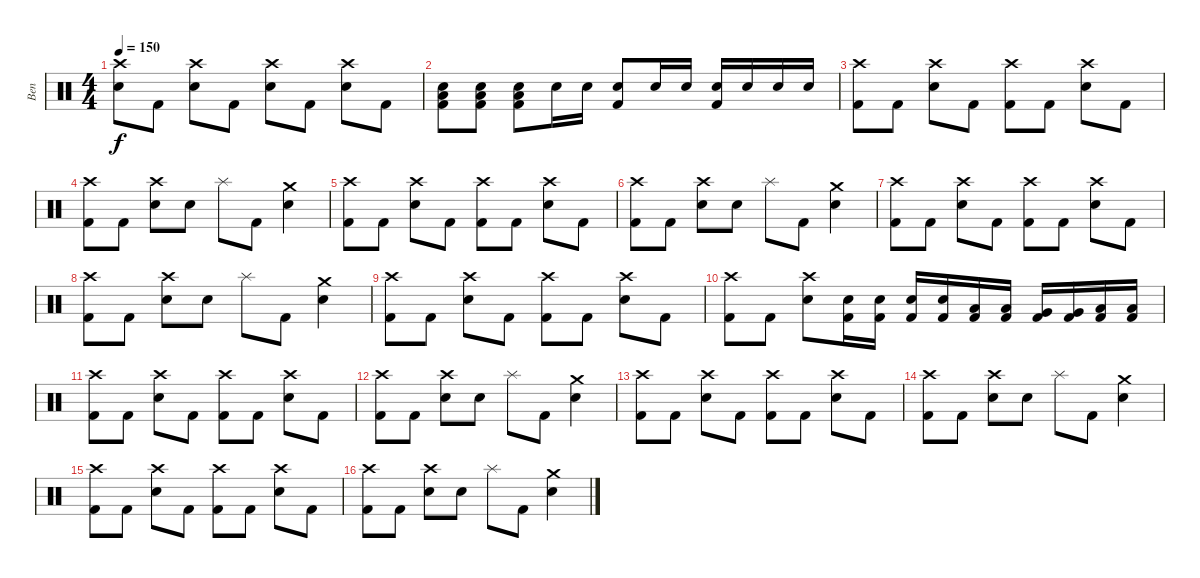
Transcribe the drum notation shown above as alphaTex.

\track ("Ben" "Ben") {instrument percussion}
\staff {score}
\articulation defaults
\ts (4 4)
\tempo 150
\clef neutral
\ks c
("Crash high (hit)" "Snare (hit) 2").8{dy f} "Kick (hit) 2".8 ("Crash high (hit)" "Snare (hit) 2").8 "Kick (hit) 2".8 ("Crash high (hit)" "Snare (hit) 2").8 "Kick (hit) 2".8 ("Crash high (hit)" "Snare (hit) 2").8 "Kick (hit) 2".8 |
("Kick (hit) 2" "Low Floor Tom (hit)" "Snare (hit) 2").8 ("Kick (hit) 2" "Low Floor Tom (hit)" "Snare (hit) 2").8 ("Kick (hit) 2" "Low Floor Tom (hit)" "Snare (hit) 2").8 "Snare (hit) 2".16 "Snare (hit) 2".16 ("Kick (hit) 2" "Snare (hit) 2").8 "Snare (hit) 2".16 "Snare (hit) 2".16 ("Kick (hit) 2" "Snare (hit) 2").16 "Snare (hit) 2".16 "Snare (hit) 2".16 "Snare (hit) 2".16 |
("Crash high (hit)" "Kick (hit) 2").8 "Kick (hit) 2".8 ("Crash high (hit)" "Snare (hit) 2").8 "Kick (hit) 2".8 ("Crash high (hit)" "Kick (hit) 2").8 "Kick (hit) 2".8 ("Crash high (hit)" "Snare (hit) 2").8 "Kick (hit) 2".8 |
("Crash high (hit)" "Kick (hit) 2").8 "Kick (hit) 2".8 ("Crash high (hit)" "Snare (hit) 2").8 "Snare (hit) 2".8 "Splash (hit)".8 "Kick (hit) 2".8 ("Crash medium (hit)" "Snare (hit) 2").4 |
("Crash high (hit)" "Kick (hit) 2").8 "Kick (hit) 2".8 ("Crash high (hit)" "Snare (hit) 2").8 "Kick (hit) 2".8 ("Crash high (hit)" "Kick (hit) 2").8 "Kick (hit) 2".8 ("Crash high (hit)" "Snare (hit) 2").8 "Kick (hit) 2".8 |
("Crash high (hit)" "Kick (hit) 2").8 "Kick (hit) 2".8 ("Crash high (hit)" "Snare (hit) 2").8 "Snare (hit) 2".8 "Splash (hit)".8 "Kick (hit) 2".8 ("Crash medium (hit)" "Snare (hit) 2").4 |
("Crash high (hit)" "Kick (hit) 2").8 "Kick (hit) 2".8 ("Crash high (hit)" "Snare (hit) 2").8 "Kick (hit) 2".8 ("Crash high (hit)" "Kick (hit) 2").8 "Kick (hit) 2".8 ("Crash high (hit)" "Snare (hit) 2").8 "Kick (hit) 2".8 |
("Crash high (hit)" "Kick (hit) 2").8 "Kick (hit) 2".8 ("Crash high (hit)" "Snare (hit) 2").8 "Snare (hit) 2".8 "Splash (hit)".8 "Kick (hit) 2".8 ("Crash medium (hit)" "Snare (hit) 2").4 |
("Crash high (hit)" "Kick (hit) 2").8 "Kick (hit) 2".8 ("Crash high (hit)" "Snare (hit) 2").8 "Kick (hit) 2".8 ("Crash high (hit)" "Kick (hit) 2").8 "Kick (hit) 2".8 ("Crash high (hit)" "Snare (hit) 2").8 "Kick (hit) 2".8 |
("Crash high (hit)" "Kick (hit) 2").8 "Kick (hit) 2".8 ("Crash high (hit)" "Snare (hit) 2").8 ("Kick (hit) 2" "Snare (hit) 2").16 ("Kick (hit) 2" "Snare (hit) 2").16 ("Kick (hit) 2" "Snare (hit) 2").16 ("Kick (hit) 2" "Snare (hit) 2").16 ("Kick (hit) 2" "Low Tom (hit)").16 ("Kick (hit) 2" "Low Tom (hit)").16 ("Kick (hit) 2" "Very Low Tom (hit)").16 ("Kick (hit) 2" "Very Low Tom (hit)").16 ("Kick (hit) 2" "Low Floor Tom (hit)").16 ("Kick (hit) 2" "Low Floor Tom (hit)").16 |
("Crash high (hit)" "Kick (hit) 2").8 "Kick (hit) 2".8 ("Crash high (hit)" "Snare (hit) 2").8 "Kick (hit) 2".8 ("Crash high (hit)" "Kick (hit) 2").8 "Kick (hit) 2".8 ("Crash high (hit)" "Snare (hit) 2").8 "Kick (hit) 2".8 |
("Crash high (hit)" "Kick (hit) 2").8 "Kick (hit) 2".8 ("Crash high (hit)" "Snare (hit) 2").8 "Snare (hit) 2".8 "Splash (hit)".8 "Kick (hit) 2".8 ("Crash medium (hit)" "Snare (hit) 2").4 |
("Crash high (hit)" "Kick (hit) 2").8 "Kick (hit) 2".8 ("Crash high (hit)" "Snare (hit) 2").8 "Kick (hit) 2".8 ("Crash high (hit)" "Kick (hit) 2").8 "Kick (hit) 2".8 ("Crash high (hit)" "Snare (hit) 2").8 "Kick (hit) 2".8 |
("Crash high (hit)" "Kick (hit) 2").8 "Kick (hit) 2".8 ("Crash high (hit)" "Snare (hit) 2").8 "Snare (hit) 2".8 "Splash (hit)".8 "Kick (hit) 2".8 ("Crash medium (hit)" "Snare (hit) 2").4 |
("Crash high (hit)" "Kick (hit) 2").8 "Kick (hit) 2".8 ("Crash high (hit)" "Snare (hit) 2").8 "Kick (hit) 2".8 ("Crash high (hit)" "Kick (hit) 2").8 "Kick (hit) 2".8 ("Crash high (hit)" "Snare (hit) 2").8 "Kick (hit) 2".8 |
("Crash high (hit)" "Kick (hit) 2").8 "Kick (hit) 2".8 ("Crash high (hit)" "Snare (hit) 2").8 "Snare (hit) 2".8 "Splash (hit)".8 "Kick (hit) 2".8 ("Crash medium (hit)" "Snare (hit) 2").4
